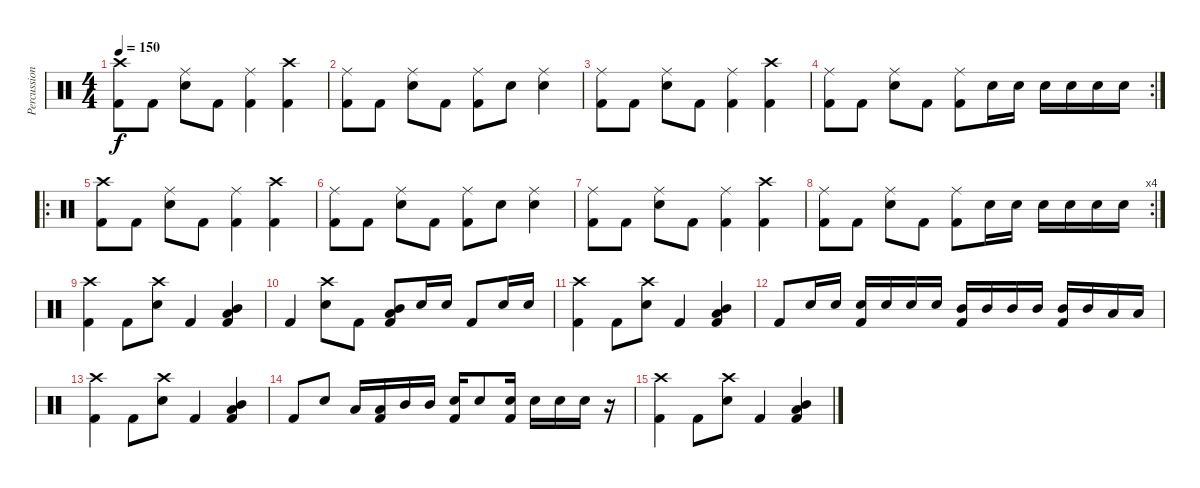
\track ("Percussion" "Percussion") {instrument percussion}
\staff {score}
\articulation defaults
\ts (4 4)
\tempo 150
\clef neutral
\ks c
("Crash high (hit)" "Kick (hit) 2").8{dy f} "Kick (hit) 2".8 ("Ride (middle)" "Snare (hit) 2").8 "Kick (hit) 2".8 ("Ride (middle)" "Kick (hit) 2").4 ("Crash high (hit)" "Kick (hit) 2").4 |
("Ride (middle)" "Kick (hit) 2").8 "Kick (hit) 2".8 ("Ride (middle)" "Snare (hit) 2").8 "Kick (hit) 2".8 ("Ride (middle)" "Kick (hit) 2").8 "Snare (hit) 2".8 ("Ride (middle)" "Snare (hit) 2").4 |
("Ride (middle)" "Kick (hit) 2").8 "Kick (hit) 2".8 ("Ride (middle)" "Snare (hit) 2").8 "Kick (hit) 2".8 ("Ride (middle)" "Kick (hit) 2").4 ("Crash high (hit)" "Kick (hit) 2").4 |
\rc 2
("Ride (middle)" "Kick (hit) 2").8 "Kick (hit) 2".8 ("Ride (middle)" "Snare (hit) 2").8 "Kick (hit) 2".8 ("Ride (middle)" "Kick (hit) 2").8 "Snare (hit) 2".16 "Snare (hit) 2".16 "Snare (hit) 2".16 "Snare (hit) 2".16 "Snare (hit) 2".16 "Snare (hit) 2".16 |
\ro
("Crash high (hit)" "Kick (hit) 2").8 "Kick (hit) 2".8 ("Ride (middle)" "Snare (hit) 2").8 "Kick (hit) 2".8 ("Ride (middle)" "Kick (hit) 2").4 ("Crash high (hit)" "Kick (hit) 2").4 |
("Ride (middle)" "Kick (hit) 2").8 "Kick (hit) 2".8 ("Ride (middle)" "Snare (hit) 2").8 "Kick (hit) 2".8 ("Ride (middle)" "Kick (hit) 2").8 "Snare (hit) 2".8 ("Ride (middle)" "Snare (hit) 2").4 |
("Ride (middle)" "Kick (hit) 2").8 "Kick (hit) 2".8 ("Ride (middle)" "Snare (hit) 2").8 "Kick (hit) 2".8 ("Ride (middle)" "Kick (hit) 2").4 ("Crash high (hit)" "Kick (hit) 2").4 |
\rc 4
("Ride (middle)" "Kick (hit) 2").8 "Kick (hit) 2".8 ("Ride (middle)" "Snare (hit) 2").8 "Kick (hit) 2".8 ("Ride (middle)" "Kick (hit) 2").8 "Snare (hit) 2".16 "Snare (hit) 2".16 "Snare (hit) 2".16 "Snare (hit) 2".16 "Snare (hit) 2".16 "Snare (hit) 2".16 |
("Crash high (hit)" "Kick (hit) 2").4 "Kick (hit) 2".8 ("Crash high (hit)" "Snare (hit) 2").8 "Kick (hit) 2".4 ("Mid Tom (hit)" "Kick (hit) 2" "Low Floor Tom (hit)").4 |
"Kick (hit) 2".4 ("Crash high (hit)" "Snare (hit) 2").8 "Kick (hit) 2".8 ("Mid Tom (hit)" "Kick (hit) 2" "Low Floor Tom (hit)").8 "Snare (hit) 2".16 "Snare (hit) 2".16 "Kick (hit) 2".8 "Snare (hit) 2".16 "Snare (hit) 2".16 |
("Crash high (hit)" "Kick (hit) 2").4 "Kick (hit) 2".8 ("Crash high (hit)" "Snare (hit) 2").8 "Kick (hit) 2".4 ("Mid Tom (hit)" "Kick (hit) 2" "Low Floor Tom (hit)").4 |
"Kick (hit) 2".8 "Snare (hit) 2".16 "Snare (hit) 2".16 ("Snare (hit) 2" "Kick (hit) 2").16 "Snare (hit) 2".16 "Snare (hit) 2".16 "Snare (hit) 2".16 ("Mid Tom (hit)" "Kick (hit) 2").16 "Mid Tom (hit)".16 "Mid Tom (hit)".16 "Mid Tom (hit)".16 ("Mid Tom (hit)" "Kick (hit) 2").16 "Mid Tom (hit)".16 "Low Floor Tom (hit)".16 "Low Floor Tom (hit)".16 |
("Crash high (hit)" "Kick (hit) 2").4 "Kick (hit) 2".8 ("Crash high (hit)" "Snare (hit) 2").8 "Kick (hit) 2".4 ("Mid Tom (hit)" "Kick (hit) 2" "Low Floor Tom (hit)").4 |
"Kick (hit) 2".8 "Snare (hit) 2".8 "Low Floor Tom (hit)".16 ("Low Floor Tom (hit)" "Kick (hit) 2").16 "Mid Tom (hit)".16 "Mid Tom (hit)".16 ("Snare (hit) 2" "Kick (hit) 2").16 "Snare (hit) 2".8 ("Snare (hit) 2" "Kick (hit) 2").16 "Snare (hit) 2".16 "Snare (hit) 2".16 "Snare (hit) 2".16 r.16 |
("Crash high (hit)" "Kick (hit) 2").4 "Kick (hit) 2".8 ("Crash high (hit)" "Snare (hit) 2").8 "Kick (hit) 2".4 ("Mid Tom (hit)" "Kick (hit) 2" "Low Floor Tom (hit)").4
